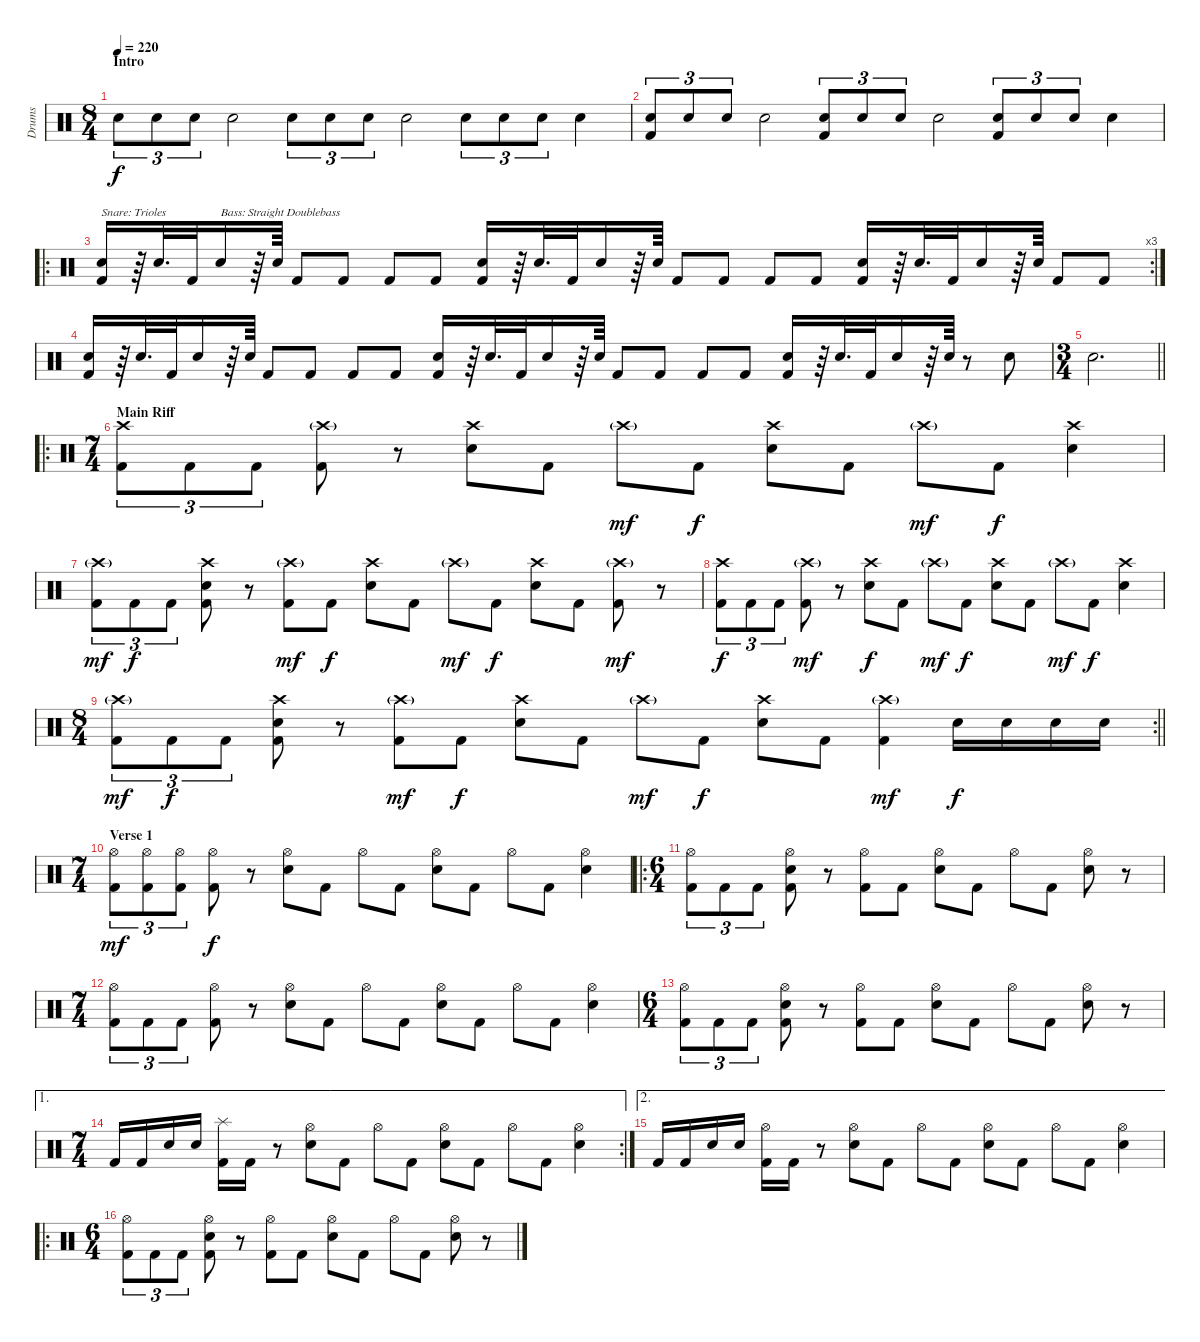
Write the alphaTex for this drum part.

\track ("Drums" "Drums") {instrument percussion}
\staff {score}
\articulation defaults
\ts (8 4)
\section ("" "Intro")
\tempo 220
\clef neutral
\ks c "Electric Snare (hit)".8{tu (3 2) dy f} "Electric Snare (hit)".8{tu (3 2)} "Electric Snare (hit)".8{tu (3 2)} "Electric Snare (hit)".2 "Electric Snare (hit)".8{tu (3 2)} "Electric Snare (hit)".8{tu (3 2)} "Electric Snare (hit)".8{tu (3 2)} "Electric Snare (hit)".2 "Electric Snare (hit)".8{tu (3 2)} "Electric Snare (hit)".8{tu (3 2)} "Electric Snare (hit)".8{tu (3 2)} "Electric Snare (hit)".4
|
("Electric Snare (hit)" "Kick (hit) 2").8{tu (3 2)} "Electric Snare (hit)".8{tu (3 2)} "Electric Snare (hit)".8{tu (3 2)} "Electric Snare (hit)".2 ("Electric Snare (hit)" "Kick (hit) 2").8{tu (3 2)} "Electric Snare (hit)".8{tu (3 2)} "Electric Snare (hit)".8{tu (3 2)} "Electric Snare (hit)".2 ("Electric Snare (hit)" "Kick (hit) 2").8{tu (3 2)} "Electric Snare (hit)".8{tu (3 2)} "Electric Snare (hit)".8{tu (3 2)} "Electric Snare (hit)".4 |
\ro
\rc 3
("Electric Snare (hit)" "Kick (hit) 2").16{txt "Snare: Trioles "} r.64 "Electric Snare (hit)".32{d} "Kick (hit) 2".32 "Electric Snare (hit)".16{txt "Bass: Straight Doublebass"} r.64 "Electric Snare (hit)".64 "Kick (hit) 2".8 "Kick (hit) 2".8 "Kick (hit) 2".8 "Kick (hit) 2".8 ("Electric Snare (hit)" "Kick (hit) 2").16 r.64 "Electric Snare (hit)".32{d} "Kick (hit) 2".32 "Electric Snare (hit)".16 r.64 "Electric Snare (hit)".64 "Kick (hit) 2".8 "Kick (hit) 2".8 "Kick (hit) 2".8 "Kick (hit) 2".8 ("Electric Snare (hit)" "Kick (hit) 2").16 r.64 "Electric Snare (hit)".32{d} "Kick (hit) 2".32 "Electric Snare (hit)".16 r.64 "Electric Snare (hit)".64 "Kick (hit) 2".8 "Kick (hit) 2".8 |
("Electric Snare (hit)" "Kick (hit) 2").16 r.64 "Electric Snare (hit)".32{d} "Kick (hit) 2".32 "Electric Snare (hit)".16 r.64 "Electric Snare (hit)".64 "Kick (hit) 2".8 "Kick (hit) 2".8 "Kick (hit) 2".8 "Kick (hit) 2".8 ("Electric Snare (hit)" "Kick (hit) 2").16 r.64 "Electric Snare (hit)".32{d} "Kick (hit) 2".32 "Electric Snare (hit)".16 r.64 "Electric Snare (hit)".64 "Kick (hit) 2".8 "Kick (hit) 2".8 "Kick (hit) 2".8 "Kick (hit) 2".8 ("Electric Snare (hit)" "Kick (hit) 2").16 r.64 "Electric Snare (hit)".32{d} "Kick (hit) 2".32 "Electric Snare (hit)".16 r.64 "Electric Snare (hit)".64 r.8 "Electric Snare (hit)".8 |
\ts (3 4)
\barLineRight lightlight "Electric Snare (hit)".2{d}
|
\ro
\ts (7 4)
\section ("" "Main Riff")
("Crash high (hit)" "Kick (hit) 2").8{tu (3 2)} "Kick (hit) 2".8{tu (3 2)} "Kick (hit) 2".8{tu (3 2)} ("Crash high (hit)"{g} "Kick (hit) 2").8 r.8 ("Crash high (hit)" "Electric Snare (hit)").8 "Kick (hit) 2".8 "Crash high (hit)"{g}.8{dy mf} "Kick (hit) 2".8{dy f} ("Crash high (hit)" "Electric Snare (hit)").8 "Kick (hit) 2".8 "Crash high (hit)"{g}.8{dy mf} "Kick (hit) 2".8{dy f} ("Crash high (hit)" "Electric Snare (hit)").4 |
("Crash high (hit)"{g} "Kick (hit) 2").8{tu (3 2) dy mf} "Kick (hit) 2".8{tu (3 2) dy f} "Kick (hit) 2".8{tu (3 2)} ("Crash high (hit)" "Electric Snare (hit)" "Kick (hit) 2").8 r.8 ("Crash high (hit)"{g} "Kick (hit) 2").8{dy mf} "Kick (hit) 2".8{dy f} ("Crash high (hit)" "Electric Snare (hit)").8 "Kick (hit) 2".8 "Crash high (hit)"{g}.8{dy mf} "Kick (hit) 2".8{dy f} ("Crash high (hit)" "Electric Snare (hit)").8 "Kick (hit) 2".8 ("Crash high (hit)"{g} "Kick (hit) 2").8{dy mf} r.8 |
("Crash high (hit)" "Kick (hit) 2").8{tu (3 2) dy f} "Kick (hit) 2".8{tu (3 2)} "Kick (hit) 2".8{tu (3 2)} ("Crash high (hit)"{g} "Kick (hit) 2").8{dy mf} r.8 ("Crash high (hit)" "Electric Snare (hit)").8{dy f} "Kick (hit) 2".8 "Crash high (hit)"{g}.8{dy mf} "Kick (hit) 2".8{dy f} ("Crash high (hit)" "Electric Snare (hit)").8 "Kick (hit) 2".8 "Crash high (hit)"{g}.8{dy mf} "Kick (hit) 2".8{dy f} ("Crash high (hit)" "Electric Snare (hit)").4 |
\rc 2
\ts (8 4)
\barLineRight lightlight
("Crash high (hit)"{g} "Kick (hit) 2").8{tu (3 2) dy mf} "Kick (hit) 2".8{tu (3 2) dy f} "Kick (hit) 2".8{tu (3 2)} ("Crash high (hit)" "Electric Snare (hit)" "Kick (hit) 2").8 r.8 ("Crash high (hit)"{g} "Kick (hit) 2").8{dy mf} "Kick (hit) 2".8{dy f} ("Crash high (hit)" "Electric Snare (hit)").8 "Kick (hit) 2".8 "Crash high (hit)"{g}.8{dy mf} "Kick (hit) 2".8{dy f} ("Crash high (hit)" "Electric Snare (hit)").8 "Kick (hit) 2".8 ("Crash high (hit)"{g} "Kick (hit) 2").4{dy mf} "Electric Snare (hit)".16{dy f} "Electric Snare (hit)".16 "Electric Snare (hit)".16 "Electric Snare (hit)".16 |
\ts (7 4)
\section ("" "Verse 1")
("Hi-Hat (open)" "Kick (hit) 2").8{tu (3 2) dy mf} ("Hi-Hat (open)" "Kick (hit) 2").8{tu (3 2)} ("Hi-Hat (open)" "Kick (hit) 2").8{tu (3 2)} ("Hi-Hat (open)" "Kick (hit) 2").8{dy f} r.8 ("Hi-Hat (open)" "Electric Snare (hit)").8 "Kick (hit) 2".8 "Hi-Hat (open)".8 "Kick (hit) 2".8 ("Hi-Hat (open)" "Electric Snare (hit)").8 "Kick (hit) 2".8 "Hi-Hat (open)".8 "Kick (hit) 2".8 ("Hi-Hat (open)" "Electric Snare (hit)").4 |
\ro
\ts (6 4)
("Hi-Hat (open)" "Kick (hit) 2").8{tu (3 2)} "Kick (hit) 2".8{tu (3 2)} "Kick (hit) 2".8{tu (3 2)} ("Hi-Hat (open)" "Electric Snare (hit)" "Kick (hit) 2").8 r.8 ("Hi-Hat (open)" "Kick (hit) 2").8 "Kick (hit) 2".8 ("Hi-Hat (open)" "Electric Snare (hit)").8 "Kick (hit) 2".8 "Hi-Hat (open)".8 "Kick (hit) 2".8 ("Hi-Hat (open)" "Electric Snare (hit)").8 r.8 |
\ts (7 4)
("Hi-Hat (open)" "Kick (hit) 2").8{tu (3 2)} "Kick (hit) 2".8{tu (3 2)} "Kick (hit) 2".8{tu (3 2)} ("Hi-Hat (open)" "Kick (hit) 2").8 r.8 ("Hi-Hat (open)" "Electric Snare (hit)").8 "Kick (hit) 2".8 "Hi-Hat (open)".8 "Kick (hit) 2".8 ("Hi-Hat (open)" "Electric Snare (hit)").8 "Kick (hit) 2".8 "Hi-Hat (open)".8 "Kick (hit) 2".8 ("Hi-Hat (open)" "Electric Snare (hit)").4 |
\ts (6 4)
("Hi-Hat (open)" "Kick (hit) 2").8{tu (3 2)} "Kick (hit) 2".8{tu (3 2)} "Kick (hit) 2".8{tu (3 2)} ("Hi-Hat (open)" "Electric Snare (hit)" "Kick (hit) 2").8 r.8 ("Hi-Hat (open)" "Kick (hit) 2").8 "Kick (hit) 2".8 ("Hi-Hat (open)" "Electric Snare (hit)").8 "Kick (hit) 2".8 "Hi-Hat (open)".8 "Kick (hit) 2".8 ("Hi-Hat (open)" "Electric Snare (hit)").8 r.8 |
\ae 1
\rc 2
\ts (7 4)
"Kick (hit) 2".16 "Kick (hit) 2".16 "Electric Snare (hit)".16 "Electric Snare (hit)".16 ("Splash (hit)" "Kick (hit) 2").16 "Kick (hit) 2".16 r.8 ("Hi-Hat (open)" "Electric Snare (hit)").8 "Kick (hit) 2".8 "Hi-Hat (open)".8 "Kick (hit) 2".8 ("Hi-Hat (open)" "Electric Snare (hit)").8 "Kick (hit) 2".8 "Hi-Hat (open)".8 "Kick (hit) 2".8 ("Hi-Hat (open)" "Electric Snare (hit)").4 |
\ae 2 "Kick (hit) 2".16 "Kick (hit) 2".16 "Electric Snare (hit)".16 "Electric Snare (hit)".16
("Hi-Hat (open)" "Kick (hit) 2").16 "Kick (hit) 2".16 r.8 ("Hi-Hat (open)" "Electric Snare (hit)").8 "Kick (hit) 2".8 "Hi-Hat (open)".8 "Kick (hit) 2".8 ("Hi-Hat (open)" "Electric Snare (hit)").8 "Kick (hit) 2".8 "Hi-Hat (open)".8 "Kick (hit) 2".8 ("Hi-Hat (open)" "Electric Snare (hit)").4 |
\ro
\ts (6 4)
("Hi-Hat (open)" "Kick (hit) 2").8{tu (3 2)} "Kick (hit) 2".8{tu (3 2)} "Kick (hit) 2".8{tu (3 2)} ("Hi-Hat (open)" "Electric Snare (hit)" "Kick (hit) 2").8 r.8 ("Hi-Hat (open)" "Kick (hit) 2").8 "Kick (hit) 2".8 ("Hi-Hat (open)" "Electric Snare (hit)").8 "Kick (hit) 2".8 "Hi-Hat (open)".8 "Kick (hit) 2".8 ("Hi-Hat (open)" "Electric Snare (hit)").8 r.8
